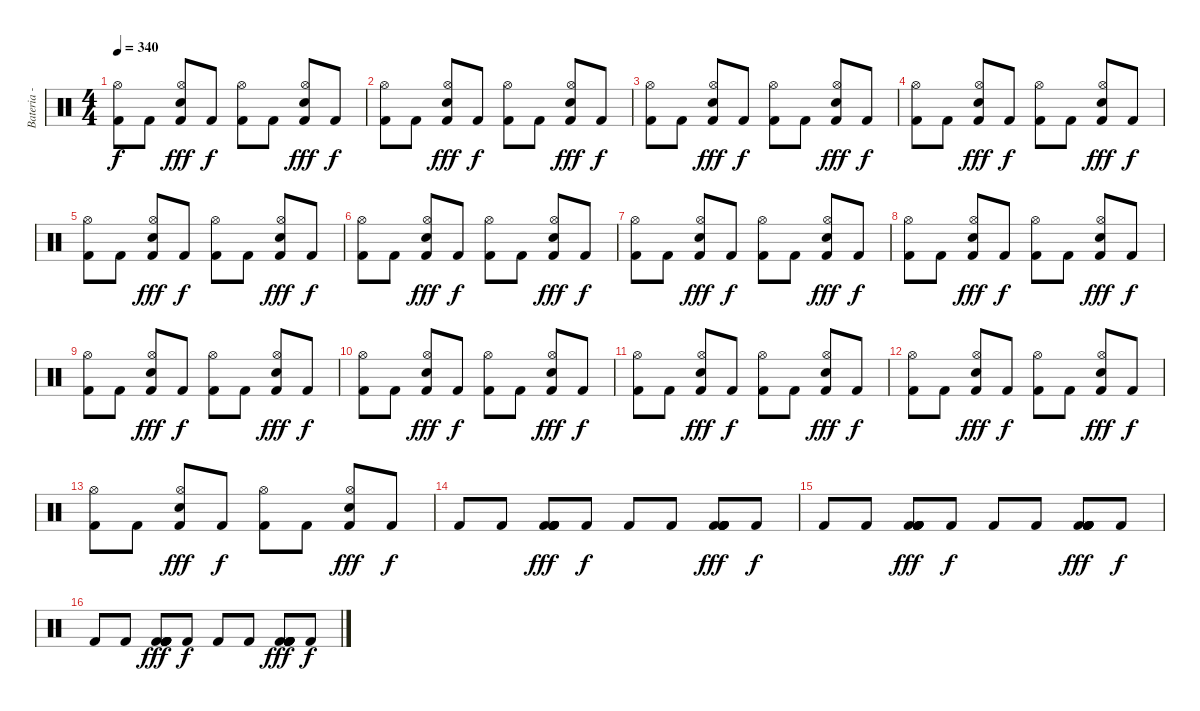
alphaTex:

\track ("Bateria - Larzon" "Bateria - ") {instrument percussion}
\staff {score}
\articulation defaults
\ts (4 4)
\tempo 340
\clef neutral
\ks c
("Kick (hit) 2" "Hi-Hat (open)").8{dy f} "Kick (hit) 2".8 ("Kick (hit) 2" "Hi-Hat (open)" "Snare (hit) 2").8{dy fff} "Kick (hit) 2".8{dy f} ("Kick (hit) 2" "Hi-Hat (open)").8 "Kick (hit) 2".8 ("Kick (hit) 2" "Hi-Hat (open)" "Snare (hit) 2").8{dy fff} "Kick (hit) 2".8{dy f} |
("Kick (hit) 2" "Hi-Hat (open)").8 "Kick (hit) 2".8 ("Kick (hit) 2" "Hi-Hat (open)" "Snare (hit) 2").8{dy fff} "Kick (hit) 2".8{dy f} ("Kick (hit) 2" "Hi-Hat (open)").8 "Kick (hit) 2".8 ("Kick (hit) 2" "Hi-Hat (open)" "Snare (hit) 2").8{dy fff} "Kick (hit) 2".8{dy f} |
("Kick (hit) 2" "Hi-Hat (open)").8 "Kick (hit) 2".8 ("Kick (hit) 2" "Hi-Hat (open)" "Snare (hit) 2").8{dy fff} "Kick (hit) 2".8{dy f} ("Kick (hit) 2" "Hi-Hat (open)").8 "Kick (hit) 2".8 ("Kick (hit) 2" "Hi-Hat (open)" "Snare (hit) 2").8{dy fff} "Kick (hit) 2".8{dy f} |
("Kick (hit) 2" "Hi-Hat (open)").8 "Kick (hit) 2".8 ("Kick (hit) 2" "Hi-Hat (open)" "Snare (hit) 2").8{dy fff} "Kick (hit) 2".8{dy f} ("Kick (hit) 2" "Hi-Hat (open)").8 "Kick (hit) 2".8 ("Kick (hit) 2" "Hi-Hat (open)" "Snare (hit) 2").8{dy fff} "Kick (hit) 2".8{dy f} |
("Kick (hit) 2" "Hi-Hat (open)").8 "Kick (hit) 2".8 ("Kick (hit) 2" "Hi-Hat (open)" "Snare (hit) 2").8{dy fff} "Kick (hit) 2".8{dy f} ("Kick (hit) 2" "Hi-Hat (open)").8 "Kick (hit) 2".8 ("Kick (hit) 2" "Hi-Hat (open)" "Snare (hit) 2").8{dy fff} "Kick (hit) 2".8{dy f} |
("Kick (hit) 2" "Hi-Hat (open)").8 "Kick (hit) 2".8 ("Kick (hit) 2" "Hi-Hat (open)" "Snare (hit) 2").8{dy fff} "Kick (hit) 2".8{dy f} ("Kick (hit) 2" "Hi-Hat (open)").8 "Kick (hit) 2".8 ("Kick (hit) 2" "Hi-Hat (open)" "Snare (hit) 2").8{dy fff} "Kick (hit) 2".8{dy f} |
("Kick (hit) 2" "Hi-Hat (open)").8 "Kick (hit) 2".8 ("Kick (hit) 2" "Hi-Hat (open)" "Snare (hit) 2").8{dy fff} "Kick (hit) 2".8{dy f} ("Kick (hit) 2" "Hi-Hat (open)").8 "Kick (hit) 2".8 ("Kick (hit) 2" "Hi-Hat (open)" "Snare (hit) 2").8{dy fff} "Kick (hit) 2".8{dy f} |
("Kick (hit) 2" "Hi-Hat (open)").8 "Kick (hit) 2".8 ("Kick (hit) 2" "Hi-Hat (open)" "Snare (hit) 2").8{dy fff} "Kick (hit) 2".8{dy f} ("Kick (hit) 2" "Hi-Hat (open)").8 "Kick (hit) 2".8 ("Kick (hit) 2" "Hi-Hat (open)" "Snare (hit) 2").8{dy fff} "Kick (hit) 2".8{dy f} |
("Kick (hit) 2" "Hi-Hat (open)").8 "Kick (hit) 2".8 ("Kick (hit) 2" "Hi-Hat (open)" "Snare (hit) 2").8{dy fff} "Kick (hit) 2".8{dy f} ("Kick (hit) 2" "Hi-Hat (open)").8 "Kick (hit) 2".8 ("Kick (hit) 2" "Hi-Hat (open)" "Snare (hit) 2").8{dy fff} "Kick (hit) 2".8{dy f} |
("Kick (hit) 2" "Hi-Hat (open)").8 "Kick (hit) 2".8 ("Kick (hit) 2" "Hi-Hat (open)" "Snare (hit) 2").8{dy fff} "Kick (hit) 2".8{dy f} ("Kick (hit) 2" "Hi-Hat (open)").8 "Kick (hit) 2".8 ("Kick (hit) 2" "Hi-Hat (open)" "Snare (hit) 2").8{dy fff} "Kick (hit) 2".8{dy f} |
("Kick (hit) 2" "Hi-Hat (open)").8 "Kick (hit) 2".8 ("Kick (hit) 2" "Hi-Hat (open)" "Snare (hit) 2").8{dy fff} "Kick (hit) 2".8{dy f} ("Kick (hit) 2" "Hi-Hat (open)").8 "Kick (hit) 2".8 ("Kick (hit) 2" "Hi-Hat (open)" "Snare (hit) 2").8{dy fff} "Kick (hit) 2".8{dy f} |
("Kick (hit) 2" "Hi-Hat (open)").8 "Kick (hit) 2".8 ("Kick (hit) 2" "Hi-Hat (open)" "Snare (hit) 2").8{dy fff} "Kick (hit) 2".8{dy f} ("Kick (hit) 2" "Hi-Hat (open)").8 "Kick (hit) 2".8 ("Kick (hit) 2" "Hi-Hat (open)" "Snare (hit) 2").8{dy fff} "Kick (hit) 2".8{dy f} |
("Kick (hit) 2" "Hi-Hat (open)").8 "Kick (hit) 2".8 ("Kick (hit) 2" "Hi-Hat (open)" "Snare (hit) 2").8{dy fff} "Kick (hit) 2".8{dy f} ("Kick (hit) 2" "Hi-Hat (open)").8 "Kick (hit) 2".8 ("Kick (hit) 2" "Hi-Hat (open)" "Snare (hit) 2").8{dy fff} "Kick (hit) 2".8{dy f} |
"Kick (hit) 2".8 "Kick (hit) 2".8 ("Kick (hit) 2" "Kick (hit) 2" "Kick (hit) 2" "Kick (hit) 2" "Kick (hit) 2" "Kick (hit) 2").8{dy fff} "Kick (hit) 2".8{dy f} "Kick (hit) 2".8 "Kick (hit) 2".8 ("Kick (hit) 2" "Kick (hit) 2" "Kick (hit) 2" "Kick (hit) 2" "Kick (hit) 2" "Kick (hit) 2").8{dy fff} "Kick (hit) 2".8{dy f} |
"Kick (hit) 2".8 "Kick (hit) 2".8 ("Kick (hit) 2" "Kick (hit) 2" "Kick (hit) 2" "Kick (hit) 2" "Kick (hit) 2" "Kick (hit) 2").8{dy fff} "Kick (hit) 2".8{dy f} "Kick (hit) 2".8 "Kick (hit) 2".8 ("Kick (hit) 2" "Kick (hit) 2" "Kick (hit) 2" "Kick (hit) 2" "Kick (hit) 2" "Kick (hit) 2").8{dy fff} "Kick (hit) 2".8{dy f} |
"Kick (hit) 2".8 "Kick (hit) 2".8 ("Kick (hit) 2" "Kick (hit) 2" "Kick (hit) 2" "Kick (hit) 2" "Kick (hit) 2" "Kick (hit) 2").8{dy fff} "Kick (hit) 2".8{dy f} "Kick (hit) 2".8 "Kick (hit) 2".8 ("Kick (hit) 2" "Kick (hit) 2" "Kick (hit) 2" "Kick (hit) 2" "Kick (hit) 2" "Kick (hit) 2").8{dy fff} "Kick (hit) 2".8{dy f}
